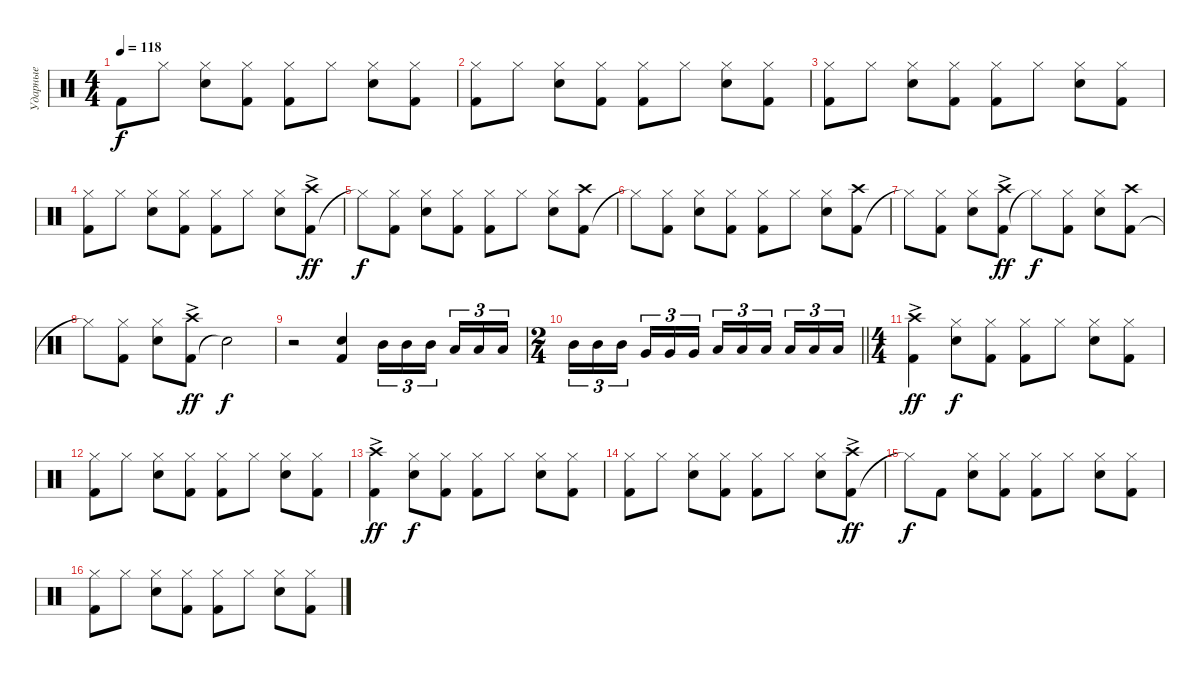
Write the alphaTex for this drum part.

\track ("Ударные" "Ударные") {instrument percussion}
\staff
\articulation defaults
\ts (4 4)
\tempo 118
\clef neutral
\ks c "Kick (hit) 2"{t}.8{dy f} "Hi-Hat (closed)".8
("Snare (hit) 2" "Hi-Hat (closed)").8 ("Kick (hit) 2" "Hi-Hat (closed)").8 ("Kick (hit) 2" "Hi-Hat (closed)").8 "Hi-Hat (closed)".8 ("Snare (hit) 2" "Hi-Hat (closed)").8 ("Kick (hit) 2" "Hi-Hat (closed)").8 |
("Kick (hit) 2" "Hi-Hat (closed)").8 "Hi-Hat (closed)".8 ("Snare (hit) 2" "Hi-Hat (closed)").8 ("Kick (hit) 2" "Hi-Hat (closed)").8 ("Kick (hit) 2" "Hi-Hat (closed)").8 "Hi-Hat (closed)".8 ("Snare (hit) 2" "Hi-Hat (closed)").8 ("Kick (hit) 2" "Hi-Hat (closed)").8 |
("Kick (hit) 2" "Hi-Hat (closed)").8 "Hi-Hat (closed)".8 ("Snare (hit) 2" "Hi-Hat (closed)").8 ("Kick (hit) 2" "Hi-Hat (closed)").8 ("Kick (hit) 2" "Hi-Hat (closed)").8 "Hi-Hat (closed)".8 ("Snare (hit) 2" "Hi-Hat (closed)").8 ("Kick (hit) 2" "Hi-Hat (closed)").8 |
("Kick (hit) 2" "Hi-Hat (closed)").8 "Hi-Hat (closed)".8 ("Snare (hit) 2" "Hi-Hat (closed)").8 ("Kick (hit) 2" "Hi-Hat (closed)").8 ("Kick (hit) 2" "Hi-Hat (closed)").8 "Hi-Hat (closed)".8 ("Snare (hit) 2" "Hi-Hat (closed)").8 ("Kick (hit) 2" "Crash high (hit)"{ac}).8{dy ff} |
"Hi-Hat (closed)"{t}.8{dy f} ("Kick (hit) 2" "Hi-Hat (closed)").8 ("Snare (hit) 2" "Hi-Hat (closed)").8 ("Kick (hit) 2" "Hi-Hat (closed)").8 ("Kick (hit) 2" "Hi-Hat (closed)").8 "Hi-Hat (closed)".8 ("Snare (hit) 2" "Hi-Hat (closed)").8 ("Kick (hit) 2" "Crash high (hit)").8 |
"Hi-Hat (closed)"{t}.8 ("Kick (hit) 2" "Hi-Hat (closed)").8 ("Snare (hit) 2" "Hi-Hat (closed)").8 ("Kick (hit) 2" "Hi-Hat (closed)").8 ("Kick (hit) 2" "Hi-Hat (closed)").8 "Hi-Hat (closed)".8 ("Snare (hit) 2" "Hi-Hat (closed)").8 ("Kick (hit) 2" "Crash high (hit)").8 |
"Hi-Hat (closed)"{t}.8 ("Kick (hit) 2" "Hi-Hat (closed)").8 ("Snare (hit) 2" "Hi-Hat (closed)").8 ("Kick (hit) 2" "Crash high (hit)"{ac}).8{dy ff} "Hi-Hat (closed)"{t}.8{dy f} ("Kick (hit) 2" "Hi-Hat (closed)").8 ("Snare (hit) 2" "Hi-Hat (closed)").8 ("Kick (hit) 2" "Crash high (hit)").8 |
"Hi-Hat (closed)"{t}.8 ("Kick (hit) 2" "Hi-Hat (closed)").8 ("Snare (hit) 2" "Hi-Hat (closed)").8 ("Kick (hit) 2" "Crash high (hit)"{ac}).8{dy ff} "Snare (hit)"{t}.2{dy f} |
r.2 ("Kick (hit) 2" "Snare (hit) 2").4 "Mid Tom (hit)".16{tu (3 2)} "Mid Tom (hit)".16{tu (3 2)} "Mid Tom (hit)".16{tu (3 2) beam splitsecondary} "Low Tom (hit)".16{tu (3 2)} "Low Tom (hit)".16{tu (3 2)} "Low Tom (hit)".16{tu (3 2)} |
\ts (2 4)
\barLineRight lightlight "Mid Tom (hit)".16{tu (3 2)} "Mid Tom (hit)".16{tu (3 2)} "Mid Tom (hit)".16{tu (3 2) beam splitsecondary} "Very Low Tom (hit)".16{tu (3 2)} "Very Low Tom (hit)".16{tu (3 2)} "Very Low Tom (hit)".16{tu (3 2)} "Low Tom (hit)".16{tu (3 2)} "Low Tom (hit)".16{tu (3 2)} "Low Tom (hit)".16{tu (3 2) beam splitsecondary} "Low Floor Tom (hit)".16{tu (3 2)} "Low Floor Tom (hit)".16{tu (3 2)} "Low Floor Tom (hit)".16{tu (3 2)}
|
\ts (4 4)
("Kick (hit) 2" "Crash high (hit)"{ac}).4{dy ff} ("Snare (hit) 2" "Hi-Hat (closed)").8{dy f} ("Kick (hit) 2" "Hi-Hat (closed)").8 ("Kick (hit) 2" "Hi-Hat (closed)").8 "Hi-Hat (closed)".8 ("Snare (hit) 2" "Hi-Hat (closed)").8 ("Kick (hit) 2" "Hi-Hat (closed)").8 |
("Kick (hit) 2" "Hi-Hat (closed)").8 "Hi-Hat (closed)".8 ("Snare (hit) 2" "Hi-Hat (closed)").8 ("Kick (hit) 2" "Hi-Hat (closed)").8 ("Kick (hit) 2" "Hi-Hat (closed)").8 "Hi-Hat (closed)".8 ("Snare (hit) 2" "Hi-Hat (closed)").8 ("Kick (hit) 2" "Hi-Hat (closed)").8 |
("Kick (hit) 2" "Crash high (hit)"{ac}).4{dy ff} ("Snare (hit) 2" "Hi-Hat (closed)").8{dy f} ("Kick (hit) 2" "Hi-Hat (closed)").8 ("Kick (hit) 2" "Hi-Hat (closed)").8 "Hi-Hat (closed)".8 ("Snare (hit) 2" "Hi-Hat (closed)").8 ("Kick (hit) 2" "Hi-Hat (closed)").8 |
("Kick (hit) 2" "Hi-Hat (closed)").8 "Hi-Hat (closed)".8 ("Snare (hit) 2" "Hi-Hat (closed)").8 ("Kick (hit) 2" "Hi-Hat (closed)").8 ("Kick (hit) 2" "Hi-Hat (closed)").8 "Hi-Hat (closed)".8 ("Snare (hit) 2" "Hi-Hat (closed)").8 ("Kick (hit) 2" "Crash high (hit)"{ac}).8{dy ff} |
"Hi-Hat (closed)"{t}.8{dy f} "Kick (hit) 2".8 ("Snare (hit) 2" "Hi-Hat (closed)").8 ("Kick (hit) 2" "Hi-Hat (closed)").8 ("Kick (hit) 2" "Hi-Hat (closed)").8 "Hi-Hat (closed)".8 ("Snare (hit) 2" "Hi-Hat (closed)").8 ("Kick (hit) 2" "Hi-Hat (closed)").8 |
("Kick (hit) 2" "Hi-Hat (closed)").8 "Hi-Hat (closed)".8 ("Snare (hit) 2" "Hi-Hat (closed)").8 ("Kick (hit) 2" "Hi-Hat (closed)").8 ("Kick (hit) 2" "Hi-Hat (closed)").8 "Hi-Hat (closed)".8 ("Snare (hit) 2" "Hi-Hat (closed)").8 ("Kick (hit) 2" "Hi-Hat (closed)").8
